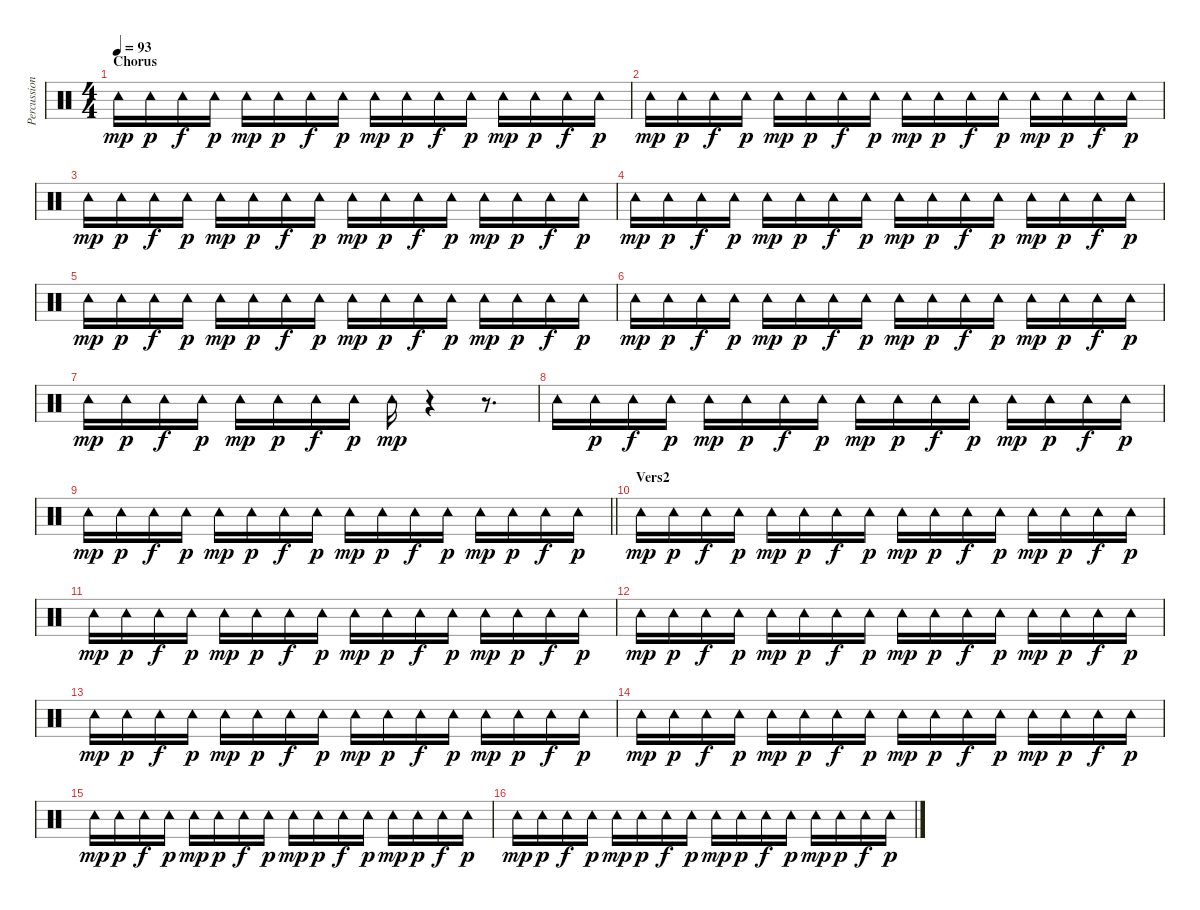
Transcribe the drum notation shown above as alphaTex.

\track ("Percussion" "Percussion") {instrument percussion}
\staff {score}
\articulation defaults
\ts (4 4)
\section ("" "Chorus")
\tempo 93
\clef neutral
\ks c "Tambourine (hit)".16{dy mp} "Tambourine (hit)".16{dy p} "Tambourine (hit)".16{dy f} "Tambourine (hit)".16{dy p} "Tambourine (hit)".16{dy mp} "Tambourine (hit)".16{dy p} "Tambourine (hit)".16{dy f} "Tambourine (hit)".16{dy p} "Tambourine (hit)".16{dy mp} "Tambourine (hit)".16{dy p} "Tambourine (hit)".16{dy f} "Tambourine (hit)".16{dy p} "Tambourine (hit)".16{dy mp} "Tambourine (hit)".16{dy p} "Tambourine (hit)".16{dy f} "Tambourine (hit)".16{dy p}
|
"Tambourine (hit)".16{dy mp} "Tambourine (hit)".16{dy p} "Tambourine (hit)".16{dy f} "Tambourine (hit)".16{dy p} "Tambourine (hit)".16{dy mp} "Tambourine (hit)".16{dy p} "Tambourine (hit)".16{dy f} "Tambourine (hit)".16{dy p} "Tambourine (hit)".16{dy mp} "Tambourine (hit)".16{dy p} "Tambourine (hit)".16{dy f} "Tambourine (hit)".16{dy p} "Tambourine (hit)".16{dy mp} "Tambourine (hit)".16{dy p} "Tambourine (hit)".16{dy f} "Tambourine (hit)".16{dy p} |
"Tambourine (hit)".16{dy mp} "Tambourine (hit)".16{dy p} "Tambourine (hit)".16{dy f} "Tambourine (hit)".16{dy p} "Tambourine (hit)".16{dy mp} "Tambourine (hit)".16{dy p} "Tambourine (hit)".16{dy f} "Tambourine (hit)".16{dy p} "Tambourine (hit)".16{dy mp} "Tambourine (hit)".16{dy p} "Tambourine (hit)".16{dy f} "Tambourine (hit)".16{dy p} "Tambourine (hit)".16{dy mp} "Tambourine (hit)".16{dy p} "Tambourine (hit)".16{dy f} "Tambourine (hit)".16{dy p} |
"Tambourine (hit)".16{dy mp} "Tambourine (hit)".16{dy p} "Tambourine (hit)".16{dy f} "Tambourine (hit)".16{dy p} "Tambourine (hit)".16{dy mp} "Tambourine (hit)".16{dy p} "Tambourine (hit)".16{dy f} "Tambourine (hit)".16{dy p} "Tambourine (hit)".16{dy mp} "Tambourine (hit)".16{dy p} "Tambourine (hit)".16{dy f} "Tambourine (hit)".16{dy p} "Tambourine (hit)".16{dy mp} "Tambourine (hit)".16{dy p} "Tambourine (hit)".16{dy f} "Tambourine (hit)".16{dy p} |
"Tambourine (hit)".16{dy mp} "Tambourine (hit)".16{dy p} "Tambourine (hit)".16{dy f} "Tambourine (hit)".16{dy p} "Tambourine (hit)".16{dy mp} "Tambourine (hit)".16{dy p} "Tambourine (hit)".16{dy f} "Tambourine (hit)".16{dy p} "Tambourine (hit)".16{dy mp} "Tambourine (hit)".16{dy p} "Tambourine (hit)".16{dy f} "Tambourine (hit)".16{dy p} "Tambourine (hit)".16{dy mp} "Tambourine (hit)".16{dy p} "Tambourine (hit)".16{dy f} "Tambourine (hit)".16{dy p} |
"Tambourine (hit)".16{dy mp} "Tambourine (hit)".16{dy p} "Tambourine (hit)".16{dy f} "Tambourine (hit)".16{dy p} "Tambourine (hit)".16{dy mp} "Tambourine (hit)".16{dy p} "Tambourine (hit)".16{dy f} "Tambourine (hit)".16{dy p} "Tambourine (hit)".16{dy mp} "Tambourine (hit)".16{dy p} "Tambourine (hit)".16{dy f} "Tambourine (hit)".16{dy p} "Tambourine (hit)".16{dy mp} "Tambourine (hit)".16{dy p} "Tambourine (hit)".16{dy f} "Tambourine (hit)".16{dy p} |
"Tambourine (hit)".16{dy mp} "Tambourine (hit)".16{dy p} "Tambourine (hit)".16{dy f} "Tambourine (hit)".16{dy p} "Tambourine (hit)".16{dy mp} "Tambourine (hit)".16{dy p} "Tambourine (hit)".16{dy f} "Tambourine (hit)".16{dy p} "Tambourine (hit)".16{dy mp} r.4 r.8{d} |
"Tambourine (hit)".16 "Tambourine (hit)".16{dy p} "Tambourine (hit)".16{dy f} "Tambourine (hit)".16{dy p} "Tambourine (hit)".16{dy mp} "Tambourine (hit)".16{dy p} "Tambourine (hit)".16{dy f} "Tambourine (hit)".16{dy p} "Tambourine (hit)".16{dy mp} "Tambourine (hit)".16{dy p} "Tambourine (hit)".16{dy f} "Tambourine (hit)".16{dy p} "Tambourine (hit)".16{dy mp} "Tambourine (hit)".16{dy p} "Tambourine (hit)".16{dy f} "Tambourine (hit)".16{dy p} |
\barLineRight lightlight "Tambourine (hit)".16{dy mp} "Tambourine (hit)".16{dy p} "Tambourine (hit)".16{dy f} "Tambourine (hit)".16{dy p} "Tambourine (hit)".16{dy mp} "Tambourine (hit)".16{dy p} "Tambourine (hit)".16{dy f} "Tambourine (hit)".16{dy p} "Tambourine (hit)".16{dy mp} "Tambourine (hit)".16{dy p} "Tambourine (hit)".16{dy f} "Tambourine (hit)".16{dy p} "Tambourine (hit)".16{dy mp} "Tambourine (hit)".16{dy p} "Tambourine (hit)".16{dy f} "Tambourine (hit)".16{dy p}
|
\section ("" "Vers2")
"Tambourine (hit)".16{dy mp} "Tambourine (hit)".16{dy p} "Tambourine (hit)".16{dy f} "Tambourine (hit)".16{dy p} "Tambourine (hit)".16{dy mp} "Tambourine (hit)".16{dy p} "Tambourine (hit)".16{dy f} "Tambourine (hit)".16{dy p} "Tambourine (hit)".16{dy mp} "Tambourine (hit)".16{dy p} "Tambourine (hit)".16{dy f} "Tambourine (hit)".16{dy p} "Tambourine (hit)".16{dy mp} "Tambourine (hit)".16{dy p} "Tambourine (hit)".16{dy f} "Tambourine (hit)".16{dy p} |
"Tambourine (hit)".16{dy mp} "Tambourine (hit)".16{dy p} "Tambourine (hit)".16{dy f} "Tambourine (hit)".16{dy p} "Tambourine (hit)".16{dy mp} "Tambourine (hit)".16{dy p} "Tambourine (hit)".16{dy f} "Tambourine (hit)".16{dy p} "Tambourine (hit)".16{dy mp} "Tambourine (hit)".16{dy p} "Tambourine (hit)".16{dy f} "Tambourine (hit)".16{dy p} "Tambourine (hit)".16{dy mp} "Tambourine (hit)".16{dy p} "Tambourine (hit)".16{dy f} "Tambourine (hit)".16{dy p} |
"Tambourine (hit)".16{dy mp} "Tambourine (hit)".16{dy p} "Tambourine (hit)".16{dy f} "Tambourine (hit)".16{dy p} "Tambourine (hit)".16{dy mp} "Tambourine (hit)".16{dy p} "Tambourine (hit)".16{dy f} "Tambourine (hit)".16{dy p} "Tambourine (hit)".16{dy mp} "Tambourine (hit)".16{dy p} "Tambourine (hit)".16{dy f} "Tambourine (hit)".16{dy p} "Tambourine (hit)".16{dy mp} "Tambourine (hit)".16{dy p} "Tambourine (hit)".16{dy f} "Tambourine (hit)".16{dy p} |
"Tambourine (hit)".16{dy mp} "Tambourine (hit)".16{dy p} "Tambourine (hit)".16{dy f} "Tambourine (hit)".16{dy p} "Tambourine (hit)".16{dy mp} "Tambourine (hit)".16{dy p} "Tambourine (hit)".16{dy f} "Tambourine (hit)".16{dy p} "Tambourine (hit)".16{dy mp} "Tambourine (hit)".16{dy p} "Tambourine (hit)".16{dy f} "Tambourine (hit)".16{dy p} "Tambourine (hit)".16{dy mp} "Tambourine (hit)".16{dy p} "Tambourine (hit)".16{dy f} "Tambourine (hit)".16{dy p} |
"Tambourine (hit)".16{dy mp} "Tambourine (hit)".16{dy p} "Tambourine (hit)".16{dy f} "Tambourine (hit)".16{dy p} "Tambourine (hit)".16{dy mp} "Tambourine (hit)".16{dy p} "Tambourine (hit)".16{dy f} "Tambourine (hit)".16{dy p} "Tambourine (hit)".16{dy mp} "Tambourine (hit)".16{dy p} "Tambourine (hit)".16{dy f} "Tambourine (hit)".16{dy p} "Tambourine (hit)".16{dy mp} "Tambourine (hit)".16{dy p} "Tambourine (hit)".16{dy f} "Tambourine (hit)".16{dy p} |
"Tambourine (hit)".16{dy mp} "Tambourine (hit)".16{dy p} "Tambourine (hit)".16{dy f} "Tambourine (hit)".16{dy p} "Tambourine (hit)".16{dy mp} "Tambourine (hit)".16{dy p} "Tambourine (hit)".16{dy f} "Tambourine (hit)".16{dy p} "Tambourine (hit)".16{dy mp} "Tambourine (hit)".16{dy p} "Tambourine (hit)".16{dy f} "Tambourine (hit)".16{dy p} "Tambourine (hit)".16{dy mp} "Tambourine (hit)".16{dy p} "Tambourine (hit)".16{dy f} "Tambourine (hit)".16{dy p} |
"Tambourine (hit)".16{dy mp} "Tambourine (hit)".16{dy p} "Tambourine (hit)".16{dy f} "Tambourine (hit)".16{dy p} "Tambourine (hit)".16{dy mp} "Tambourine (hit)".16{dy p} "Tambourine (hit)".16{dy f} "Tambourine (hit)".16{dy p} "Tambourine (hit)".16{dy mp} "Tambourine (hit)".16{dy p} "Tambourine (hit)".16{dy f} "Tambourine (hit)".16{dy p} "Tambourine (hit)".16{dy mp} "Tambourine (hit)".16{dy p} "Tambourine (hit)".16{dy f} "Tambourine (hit)".16{dy p}
